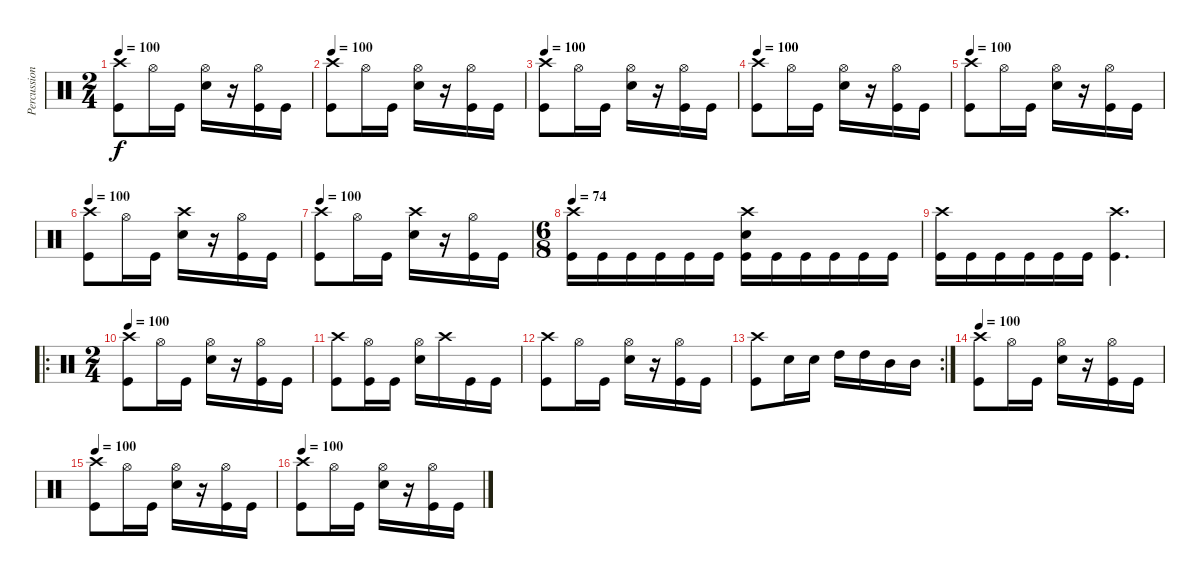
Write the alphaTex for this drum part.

\track ("Percussioni" "Percussion") {instrument percussion}
\staff {score}
\articulation defaults
\ts (2 4)
\tempo 100
\clef neutral
\ks c
("Crash high (hit)" "Kick (hit)").8{dy f} "Hi-Hat (open)".16 "Kick (hit)".16 ("Hi-Hat (open)" "Snare (hit) 2").16 r.16 ("Hi-Hat (open)" "Kick (hit)").16 "Kick (hit)".16 |
\tempo 100
("Crash high (hit)" "Kick (hit)").8 "Hi-Hat (open)".16 "Kick (hit)".16 ("Hi-Hat (open)" "Snare (hit) 2").16 r.16 ("Hi-Hat (open)" "Kick (hit)").16 "Kick (hit)".16 |
\tempo 100
("Crash high (hit)" "Kick (hit)").8 "Hi-Hat (open)".16 "Kick (hit)".16 ("Hi-Hat (open)" "Snare (hit) 2").16 r.16 ("Hi-Hat (open)" "Kick (hit)").16 "Kick (hit)".16 |
\tempo 100
("Crash high (hit)" "Kick (hit)").8 "Hi-Hat (open)".16 "Kick (hit)".16 ("Hi-Hat (open)" "Snare (hit) 2").16 r.16 ("Hi-Hat (open)" "Kick (hit)").16 "Kick (hit)".16 |
\tempo 100
("Crash high (hit)" "Kick (hit)").8 "Hi-Hat (open)".16 "Kick (hit)".16 ("Hi-Hat (open)" "Snare (hit) 2").16 r.16 ("Hi-Hat (open)" "Kick (hit)").16 "Kick (hit)".16 |
\tempo 100
("Crash high (hit)" "Kick (hit)").8 "Hi-Hat (open)".16 "Kick (hit)".16 ("Crash high (hit)" "Snare (hit) 2").16 r.16 ("Hi-Hat (open)" "Kick (hit)").16 "Kick (hit)".16 |
\tempo 100
("Crash high (hit)" "Kick (hit)").8 "Hi-Hat (open)".16 "Kick (hit)".16 ("Crash high (hit)" "Snare (hit) 2").16 r.16 ("Hi-Hat (open)" "Kick (hit)").16 "Kick (hit)".16 |
\ts (6 8)
\tempo 74
("Crash high (hit)" "Kick (hit)").16 "Kick (hit)".16 "Kick (hit)".16 "Kick (hit)".16 "Kick (hit)".16 "Kick (hit)".16 ("Crash high (hit)" "Snare (hit) 2" "Kick (hit)").16 "Kick (hit)".16 "Kick (hit)".16 "Kick (hit)".16 "Kick (hit)".16 "Kick (hit)".16 |
("Crash high (hit)" "Kick (hit)").16 "Kick (hit)".16 "Kick (hit)".16 "Kick (hit)".16 "Kick (hit)".16 "Kick (hit)".16 ("Crash high (hit)" "Kick (hit)").4{d} |
\ro
\ts (2 4)
\tempo 100
("Crash high (hit)" "Kick (hit)").8 "Hi-Hat (open)".16 "Kick (hit)".16 ("Hi-Hat (open)" "Snare (hit) 2").16 r.16 ("Hi-Hat (open)" "Kick (hit)").16 "Kick (hit)".16 |
("Crash high (hit)" "Kick (hit)").8 ("Hi-Hat (open)" "Kick (hit)").16 "Kick (hit)".16 ("Hi-Hat (open)" "Snare (hit) 2").16 "Crash high (hit)".16 "Kick (hit)".16 "Kick (hit)".16 |
("Crash high (hit)" "Kick (hit)").8 "Hi-Hat (open)".16 "Kick (hit)".16 ("Hi-Hat (open)" "Snare (hit) 2").16 r.16 ("Hi-Hat (open)" "Kick (hit)").16 "Kick (hit)".16 |
\rc 2
("Crash high (hit)" "Kick (hit)").8 "Snare (hit) 2".16 "Snare (hit) 2".16 "High Tom (hit)".16 "High Tom (hit)".16 "Mid Tom (hit)".16 "Mid Tom (hit)".16 |
\tempo 100
("Crash high (hit)" "Kick (hit)").8 "Hi-Hat (open)".16 "Kick (hit)".16 ("Hi-Hat (open)" "Snare (hit) 2").16 r.16 ("Hi-Hat (open)" "Kick (hit)").16 "Kick (hit)".16 |
\tempo 100
("Crash high (hit)" "Kick (hit)").8 "Hi-Hat (open)".16 "Kick (hit)".16 ("Hi-Hat (open)" "Snare (hit) 2").16 r.16 ("Hi-Hat (open)" "Kick (hit)").16 "Kick (hit)".16 |
\tempo 100
("Crash high (hit)" "Kick (hit)").8 "Hi-Hat (open)".16 "Kick (hit)".16 ("Hi-Hat (open)" "Snare (hit) 2").16 r.16 ("Hi-Hat (open)" "Kick (hit)").16 "Kick (hit)".16
